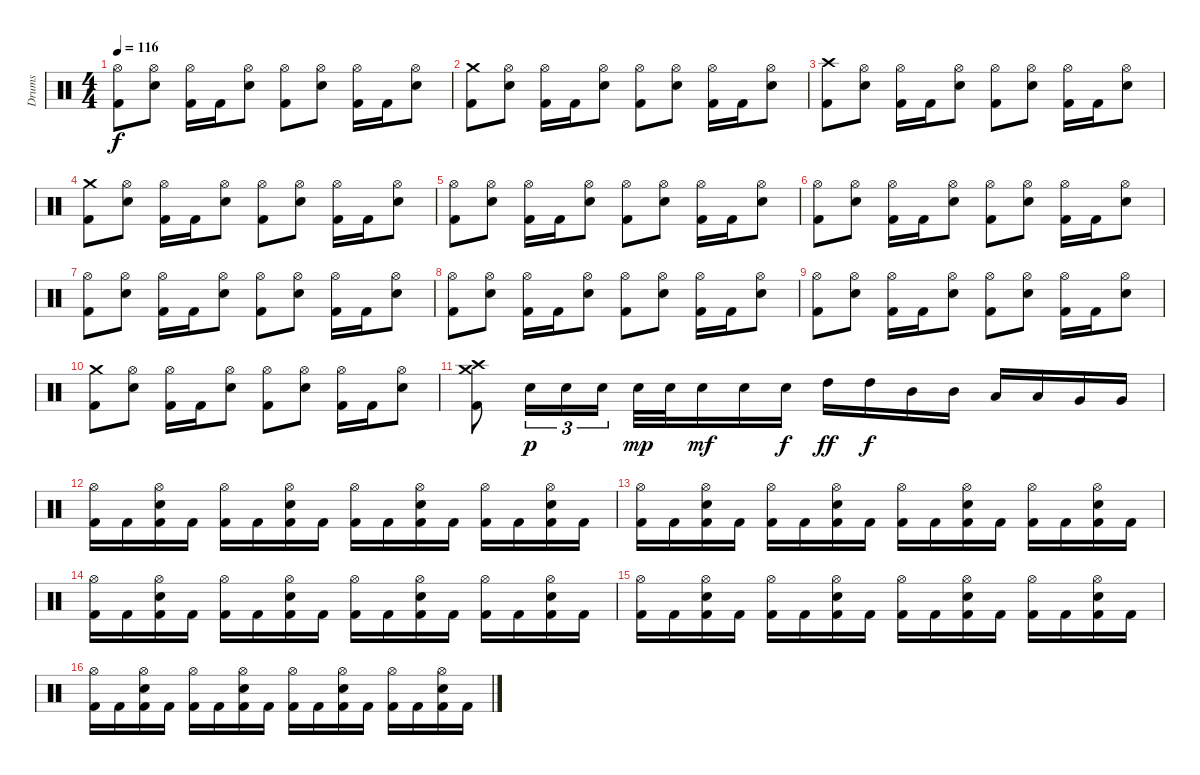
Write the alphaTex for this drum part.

\track ("Drums" "Drums") {instrument percussion}
\staff {score}
\articulation defaults
\ts (4 4)
\tempo 116
\clef neutral
\ks c
("Hi-Hat (open)" "Kick (hit) 2").8{dy f} ("Hi-Hat (open)" "Electric Snare (hit)").8 ("Hi-Hat (open)" "Kick (hit) 2").16 "Kick (hit) 2".16 ("Hi-Hat (open)" "Electric Snare (hit)").8 ("Hi-Hat (open)" "Kick (hit) 2").8 ("Hi-Hat (open)" "Electric Snare (hit)").8 ("Hi-Hat (open)" "Kick (hit) 2").16 "Kick (hit) 2".16 ("Hi-Hat (open)" "Electric Snare (hit)").8 |
("Crash medium (hit)" "Kick (hit) 2").8 ("Hi-Hat (open)" "Electric Snare (hit)").8 ("Hi-Hat (open)" "Kick (hit) 2").16 "Kick (hit) 2".16 ("Hi-Hat (open)" "Electric Snare (hit)").8 ("Hi-Hat (open)" "Kick (hit) 2").8 ("Hi-Hat (open)" "Electric Snare (hit)").8 ("Hi-Hat (open)" "Kick (hit) 2").16 "Kick (hit) 2".16 ("Hi-Hat (open)" "Electric Snare (hit)").8 |
("Crash high (hit)" "Kick (hit) 2").8 ("Hi-Hat (open)" "Electric Snare (hit)").8 ("Hi-Hat (open)" "Kick (hit) 2").16 "Kick (hit) 2".16 ("Hi-Hat (open)" "Electric Snare (hit)").8 ("Hi-Hat (open)" "Kick (hit) 2").8 ("Hi-Hat (open)" "Electric Snare (hit)").8 ("Hi-Hat (open)" "Kick (hit) 2").16 "Kick (hit) 2".16 ("Hi-Hat (open)" "Electric Snare (hit)").8 |
("Crash medium (hit)" "Kick (hit) 2").8 ("Hi-Hat (open)" "Electric Snare (hit)").8 ("Hi-Hat (open)" "Kick (hit) 2").16 "Kick (hit) 2".16 ("Hi-Hat (open)" "Electric Snare (hit)").8 ("Hi-Hat (open)" "Kick (hit) 2").8 ("Hi-Hat (open)" "Electric Snare (hit)").8 ("Hi-Hat (open)" "Kick (hit) 2").16 "Kick (hit) 2".16 ("Hi-Hat (open)" "Electric Snare (hit)").8 |
("Hi-Hat (open)" "Kick (hit) 2").8 ("Hi-Hat (open)" "Electric Snare (hit)").8 ("Hi-Hat (open)" "Kick (hit) 2").16 "Kick (hit) 2".16 ("Hi-Hat (open)" "Electric Snare (hit)").8 ("Hi-Hat (open)" "Kick (hit) 2").8 ("Hi-Hat (open)" "Electric Snare (hit)").8 ("Hi-Hat (open)" "Kick (hit) 2").16 "Kick (hit) 2".16 ("Hi-Hat (open)" "Electric Snare (hit)").8 |
("Hi-Hat (open)" "Kick (hit) 2").8 ("Hi-Hat (open)" "Electric Snare (hit)").8 ("Hi-Hat (open)" "Kick (hit) 2").16 "Kick (hit) 2".16 ("Hi-Hat (open)" "Electric Snare (hit)").8 ("Hi-Hat (open)" "Kick (hit) 2").8 ("Hi-Hat (open)" "Electric Snare (hit)").8 ("Hi-Hat (open)" "Kick (hit) 2").16 "Kick (hit) 2".16 ("Hi-Hat (open)" "Electric Snare (hit)").8 |
("Hi-Hat (open)" "Kick (hit) 2").8 ("Hi-Hat (open)" "Electric Snare (hit)").8 ("Hi-Hat (open)" "Kick (hit) 2").16 "Kick (hit) 2".16 ("Hi-Hat (open)" "Electric Snare (hit)").8 ("Hi-Hat (open)" "Kick (hit) 2").8 ("Hi-Hat (open)" "Electric Snare (hit)").8 ("Hi-Hat (open)" "Kick (hit) 2").16 "Kick (hit) 2".16 ("Hi-Hat (open)" "Electric Snare (hit)").8 |
("Hi-Hat (open)" "Kick (hit) 2").8 ("Hi-Hat (open)" "Electric Snare (hit)").8 ("Hi-Hat (open)" "Kick (hit) 2").16 "Kick (hit) 2".16 ("Hi-Hat (open)" "Electric Snare (hit)").8 ("Hi-Hat (open)" "Kick (hit) 2").8 ("Hi-Hat (open)" "Electric Snare (hit)").8 ("Hi-Hat (open)" "Kick (hit) 2").16 "Kick (hit) 2".16 ("Hi-Hat (open)" "Electric Snare (hit)").8 |
("Hi-Hat (open)" "Kick (hit) 2").8 ("Hi-Hat (open)" "Electric Snare (hit)").8 ("Hi-Hat (open)" "Kick (hit) 2").16 "Kick (hit) 2".16 ("Hi-Hat (open)" "Electric Snare (hit)").8 ("Hi-Hat (open)" "Kick (hit) 2").8 ("Hi-Hat (open)" "Electric Snare (hit)").8 ("Hi-Hat (open)" "Kick (hit) 2").16 "Kick (hit) 2".16 ("Hi-Hat (open)" "Electric Snare (hit)").8 |
("Crash medium (hit)" "Kick (hit) 2").8 ("Hi-Hat (open)" "Electric Snare (hit)").8 ("Hi-Hat (open)" "Kick (hit) 2").16 "Kick (hit) 2".16 ("Hi-Hat (open)" "Electric Snare (hit)").8 ("Hi-Hat (open)" "Kick (hit) 2").8 ("Hi-Hat (open)" "Electric Snare (hit)").8 ("Hi-Hat (open)" "Kick (hit) 2").16 "Kick (hit) 2".16 ("Hi-Hat (open)" "Electric Snare (hit)").8 |
("Crash medium (hit)" "Crash high (hit)" "Kick (hit) 2").8 "Electric Snare (hit)".16{tu (3 2) dy p} "Electric Snare (hit)".16{tu (3 2)} "Electric Snare (hit)".16{tu (3 2)} "Electric Snare (hit)".32{dy mp} "Electric Snare (hit)".32 "Electric Snare (hit)".16{dy mf} "Electric Snare (hit)".16 "Electric Snare (hit)".16{dy f} "High Tom (hit)".16{dy ff} "High Tom (hit)".16{dy f} "Mid Tom (hit)".16 "Mid Tom (hit)".16 "Low Tom (hit)".16 "Low Tom (hit)".16 "Very Low Tom (hit)".16 "Very Low Tom (hit)".16 |
("Hi-Hat (open)" "Kick (hit) 2").16 "Kick (hit) 2".16 ("Hi-Hat (open)" "Electric Snare (hit)" "Kick (hit) 2").16 "Kick (hit) 2".16 ("Hi-Hat (open)" "Kick (hit) 2").16 "Kick (hit) 2".16 ("Hi-Hat (open)" "Electric Snare (hit)" "Kick (hit) 2").16 "Kick (hit) 2".16 ("Hi-Hat (open)" "Kick (hit) 2").16 "Kick (hit) 2".16 ("Hi-Hat (open)" "Electric Snare (hit)" "Kick (hit) 2").16 "Kick (hit) 2".16 ("Hi-Hat (open)" "Kick (hit) 2").16 "Kick (hit) 2".16 ("Hi-Hat (open)" "Electric Snare (hit)" "Kick (hit) 2").16 "Kick (hit) 2".16 |
("Hi-Hat (open)" "Kick (hit) 2").16 "Kick (hit) 2".16 ("Hi-Hat (open)" "Electric Snare (hit)" "Kick (hit) 2").16 "Kick (hit) 2".16 ("Hi-Hat (open)" "Kick (hit) 2").16 "Kick (hit) 2".16 ("Hi-Hat (open)" "Electric Snare (hit)" "Kick (hit) 2").16 "Kick (hit) 2".16 ("Hi-Hat (open)" "Kick (hit) 2").16 "Kick (hit) 2".16 ("Hi-Hat (open)" "Electric Snare (hit)" "Kick (hit) 2").16 "Kick (hit) 2".16 ("Hi-Hat (open)" "Kick (hit) 2").16 "Kick (hit) 2".16 ("Hi-Hat (open)" "Electric Snare (hit)" "Kick (hit) 2").16 "Kick (hit) 2".16 |
("Hi-Hat (open)" "Kick (hit) 2").16 "Kick (hit) 2".16 ("Hi-Hat (open)" "Electric Snare (hit)" "Kick (hit) 2").16 "Kick (hit) 2".16 ("Hi-Hat (open)" "Kick (hit) 2").16 "Kick (hit) 2".16 ("Hi-Hat (open)" "Electric Snare (hit)" "Kick (hit) 2").16 "Kick (hit) 2".16 ("Hi-Hat (open)" "Kick (hit) 2").16 "Kick (hit) 2".16 ("Hi-Hat (open)" "Electric Snare (hit)" "Kick (hit) 2").16 "Kick (hit) 2".16 ("Hi-Hat (open)" "Kick (hit) 2").16 "Kick (hit) 2".16 ("Hi-Hat (open)" "Electric Snare (hit)" "Kick (hit) 2").16 "Kick (hit) 2".16 |
("Hi-Hat (open)" "Kick (hit) 2").16 "Kick (hit) 2".16 ("Hi-Hat (open)" "Electric Snare (hit)" "Kick (hit) 2").16 "Kick (hit) 2".16 ("Hi-Hat (open)" "Kick (hit) 2").16 "Kick (hit) 2".16 ("Hi-Hat (open)" "Electric Snare (hit)" "Kick (hit) 2").16 "Kick (hit) 2".16 ("Hi-Hat (open)" "Kick (hit) 2").16 "Kick (hit) 2".16 ("Hi-Hat (open)" "Electric Snare (hit)" "Kick (hit) 2").16 "Kick (hit) 2".16 ("Hi-Hat (open)" "Kick (hit) 2").16 "Kick (hit) 2".16 ("Hi-Hat (open)" "Electric Snare (hit)" "Kick (hit) 2").16 "Kick (hit) 2".16 |
("Hi-Hat (open)" "Kick (hit) 2").16 "Kick (hit) 2".16 ("Hi-Hat (open)" "Electric Snare (hit)" "Kick (hit) 2").16 "Kick (hit) 2".16 ("Hi-Hat (open)" "Kick (hit) 2").16 "Kick (hit) 2".16 ("Hi-Hat (open)" "Electric Snare (hit)" "Kick (hit) 2").16 "Kick (hit) 2".16 ("Hi-Hat (open)" "Kick (hit) 2").16 "Kick (hit) 2".16 ("Hi-Hat (open)" "Electric Snare (hit)" "Kick (hit) 2").16 "Kick (hit) 2".16 ("Hi-Hat (open)" "Kick (hit) 2").16 "Kick (hit) 2".16 ("Hi-Hat (open)" "Electric Snare (hit)" "Kick (hit) 2").16 "Kick (hit) 2".16
